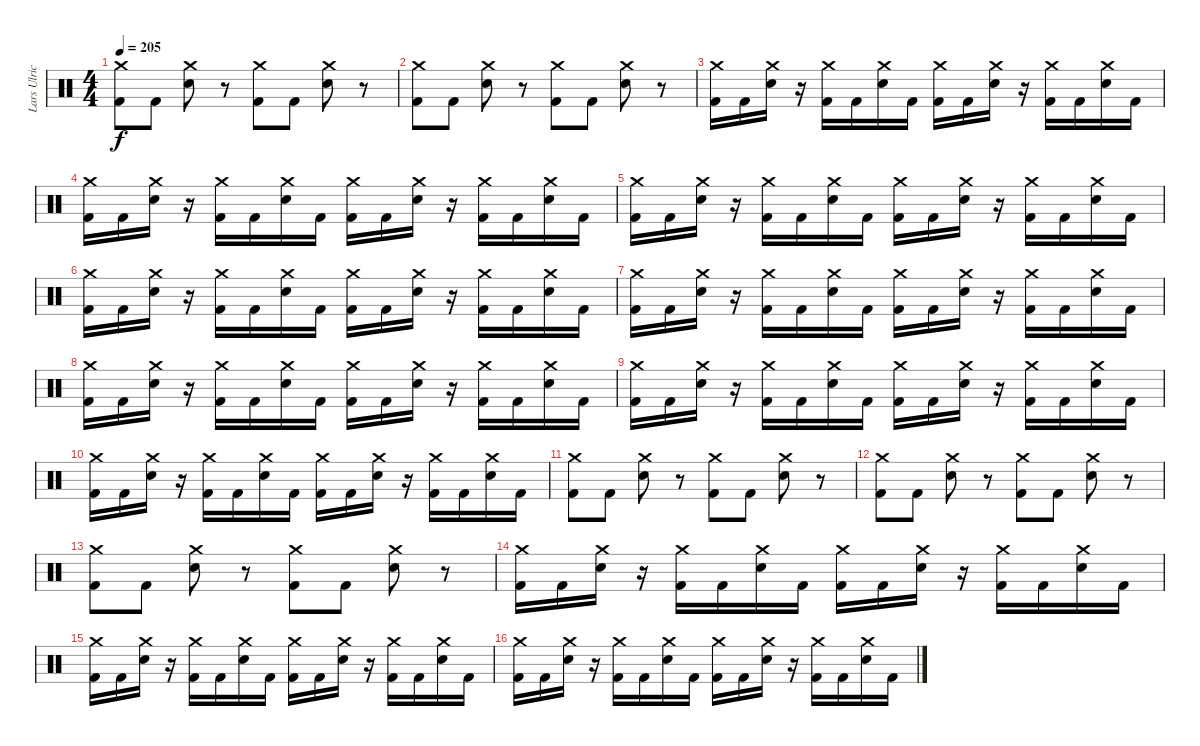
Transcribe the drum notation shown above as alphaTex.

\track ("Lars Ulrich" "Lars Ulric") {instrument percussion}
\staff {score}
\articulation defaults
\ts (4 4)
\tempo 205
\clef neutral
\ks c
("Crash medium (hit)" "Kick (hit) 2").8{dy f} "Kick (hit) 2".8 ("Crash medium (hit)" "Electric Snare (hit)").8 r.8 ("Crash medium (hit)" "Kick (hit) 2").8 "Kick (hit) 2".8 ("Crash medium (hit)" "Electric Snare (hit)").8 r.8 |
("Crash medium (hit)" "Kick (hit) 2").8 "Kick (hit) 2".8 ("Crash medium (hit)" "Electric Snare (hit)").8 r.8 ("Crash medium (hit)" "Kick (hit) 2").8 "Kick (hit) 2".8 ("Crash medium (hit)" "Electric Snare (hit)").8 r.8 |
("Crash medium (hit)" "Kick (hit) 2").16 "Kick (hit) 2".16 ("Crash medium (hit)" "Electric Snare (hit)").16 r.16 ("Crash medium (hit)" "Kick (hit) 2").16 "Kick (hit) 2".16 ("Crash medium (hit)" "Electric Snare (hit)").16 "Kick (hit) 2".16 ("Crash medium (hit)" "Kick (hit) 2").16 "Kick (hit) 2".16 ("Crash medium (hit)" "Electric Snare (hit)").16 r.16 ("Crash medium (hit)" "Kick (hit) 2").16 "Kick (hit) 2".16 ("Crash medium (hit)" "Electric Snare (hit)").16 "Kick (hit) 2".16 |
("Crash medium (hit)" "Kick (hit) 2").16 "Kick (hit) 2".16 ("Crash medium (hit)" "Electric Snare (hit)").16 r.16 ("Crash medium (hit)" "Kick (hit) 2").16 "Kick (hit) 2".16 ("Crash medium (hit)" "Electric Snare (hit)").16 "Kick (hit) 2".16 ("Crash medium (hit)" "Kick (hit) 2").16 "Kick (hit) 2".16 ("Crash medium (hit)" "Electric Snare (hit)").16 r.16 ("Crash medium (hit)" "Kick (hit) 2").16 "Kick (hit) 2".16 ("Crash medium (hit)" "Electric Snare (hit)").16 "Kick (hit) 2".16 |
("Crash medium (hit)" "Kick (hit) 2").16 "Kick (hit) 2".16 ("Crash medium (hit)" "Electric Snare (hit)").16 r.16 ("Crash medium (hit)" "Kick (hit) 2").16 "Kick (hit) 2".16 ("Crash medium (hit)" "Electric Snare (hit)").16 "Kick (hit) 2".16 ("Crash medium (hit)" "Kick (hit) 2").16 "Kick (hit) 2".16 ("Crash medium (hit)" "Electric Snare (hit)").16 r.16 ("Crash medium (hit)" "Kick (hit) 2").16 "Kick (hit) 2".16 ("Crash medium (hit)" "Electric Snare (hit)").16 "Kick (hit) 2".16 |
("Crash medium (hit)" "Kick (hit) 2").16 "Kick (hit) 2".16 ("Crash medium (hit)" "Electric Snare (hit)").16 r.16 ("Crash medium (hit)" "Kick (hit) 2").16 "Kick (hit) 2".16 ("Crash medium (hit)" "Electric Snare (hit)").16 "Kick (hit) 2".16 ("Crash medium (hit)" "Kick (hit) 2").16 "Kick (hit) 2".16 ("Crash medium (hit)" "Electric Snare (hit)").16 r.16 ("Crash medium (hit)" "Kick (hit) 2").16 "Kick (hit) 2".16 ("Crash medium (hit)" "Electric Snare (hit)").16 "Kick (hit) 2".16 |
("Crash medium (hit)" "Kick (hit) 2").16 "Kick (hit) 2".16 ("Crash medium (hit)" "Electric Snare (hit)").16 r.16 ("Crash medium (hit)" "Kick (hit) 2").16 "Kick (hit) 2".16 ("Crash medium (hit)" "Electric Snare (hit)").16 "Kick (hit) 2".16 ("Crash medium (hit)" "Kick (hit) 2").16 "Kick (hit) 2".16 ("Crash medium (hit)" "Electric Snare (hit)").16 r.16 ("Crash medium (hit)" "Kick (hit) 2").16 "Kick (hit) 2".16 ("Crash medium (hit)" "Electric Snare (hit)").16 "Kick (hit) 2".16 |
("Crash medium (hit)" "Kick (hit) 2").16 "Kick (hit) 2".16 ("Crash medium (hit)" "Electric Snare (hit)").16 r.16 ("Crash medium (hit)" "Kick (hit) 2").16 "Kick (hit) 2".16 ("Crash medium (hit)" "Electric Snare (hit)").16 "Kick (hit) 2".16 ("Crash medium (hit)" "Kick (hit) 2").16 "Kick (hit) 2".16 ("Crash medium (hit)" "Electric Snare (hit)").16 r.16 ("Crash medium (hit)" "Kick (hit) 2").16 "Kick (hit) 2".16 ("Crash medium (hit)" "Electric Snare (hit)").16 "Kick (hit) 2".16 |
("Crash medium (hit)" "Kick (hit) 2").16 "Kick (hit) 2".16 ("Crash medium (hit)" "Electric Snare (hit)").16 r.16 ("Crash medium (hit)" "Kick (hit) 2").16 "Kick (hit) 2".16 ("Crash medium (hit)" "Electric Snare (hit)").16 "Kick (hit) 2".16 ("Crash medium (hit)" "Kick (hit) 2").16 "Kick (hit) 2".16 ("Crash medium (hit)" "Electric Snare (hit)").16 r.16 ("Crash medium (hit)" "Kick (hit) 2").16 "Kick (hit) 2".16 ("Crash medium (hit)" "Electric Snare (hit)").16 "Kick (hit) 2".16 |
("Crash medium (hit)" "Kick (hit) 2").16 "Kick (hit) 2".16 ("Crash medium (hit)" "Electric Snare (hit)").16 r.16 ("Crash medium (hit)" "Kick (hit) 2").16 "Kick (hit) 2".16 ("Crash medium (hit)" "Electric Snare (hit)").16 "Kick (hit) 2".16 ("Crash medium (hit)" "Kick (hit) 2").16 "Kick (hit) 2".16 ("Crash medium (hit)" "Electric Snare (hit)").16 r.16 ("Crash medium (hit)" "Kick (hit) 2").16 "Kick (hit) 2".16 ("Crash medium (hit)" "Electric Snare (hit)").16 "Kick (hit) 2".16 |
("Crash medium (hit)" "Kick (hit) 2").8 "Kick (hit) 2".8 ("Crash medium (hit)" "Electric Snare (hit)").8 r.8 ("Crash medium (hit)" "Kick (hit) 2").8 "Kick (hit) 2".8 ("Crash medium (hit)" "Electric Snare (hit)").8 r.8 |
("Crash medium (hit)" "Kick (hit) 2").8 "Kick (hit) 2".8 ("Crash medium (hit)" "Electric Snare (hit)").8 r.8 ("Crash medium (hit)" "Kick (hit) 2").8 "Kick (hit) 2".8 ("Crash medium (hit)" "Electric Snare (hit)").8 r.8 |
("Crash medium (hit)" "Kick (hit) 2").8 "Kick (hit) 2".8 ("Crash medium (hit)" "Electric Snare (hit)").8 r.8 ("Crash medium (hit)" "Kick (hit) 2").8 "Kick (hit) 2".8 ("Crash medium (hit)" "Electric Snare (hit)").8 r.8 |
("Crash medium (hit)" "Kick (hit) 2").16 "Kick (hit) 2".16 ("Crash medium (hit)" "Electric Snare (hit)").16 r.16 ("Crash medium (hit)" "Kick (hit) 2").16 "Kick (hit) 2".16 ("Crash medium (hit)" "Electric Snare (hit)").16 "Kick (hit) 2".16 ("Crash medium (hit)" "Kick (hit) 2").16 "Kick (hit) 2".16 ("Crash medium (hit)" "Electric Snare (hit)").16 r.16 ("Crash medium (hit)" "Kick (hit) 2").16 "Kick (hit) 2".16 ("Crash medium (hit)" "Electric Snare (hit)").16 "Kick (hit) 2".16 |
("Crash medium (hit)" "Kick (hit) 2").16 "Kick (hit) 2".16 ("Crash medium (hit)" "Electric Snare (hit)").16 r.16 ("Crash medium (hit)" "Kick (hit) 2").16 "Kick (hit) 2".16 ("Crash medium (hit)" "Electric Snare (hit)").16 "Kick (hit) 2".16 ("Crash medium (hit)" "Kick (hit) 2").16 "Kick (hit) 2".16 ("Crash medium (hit)" "Electric Snare (hit)").16 r.16 ("Crash medium (hit)" "Kick (hit) 2").16 "Kick (hit) 2".16 ("Crash medium (hit)" "Electric Snare (hit)").16 "Kick (hit) 2".16 |
("Crash medium (hit)" "Kick (hit) 2").16 "Kick (hit) 2".16 ("Crash medium (hit)" "Electric Snare (hit)").16 r.16 ("Crash medium (hit)" "Kick (hit) 2").16 "Kick (hit) 2".16 ("Crash medium (hit)" "Electric Snare (hit)").16 "Kick (hit) 2".16 ("Crash medium (hit)" "Kick (hit) 2").16 "Kick (hit) 2".16 ("Crash medium (hit)" "Electric Snare (hit)").16 r.16 ("Crash medium (hit)" "Kick (hit) 2").16 "Kick (hit) 2".16 ("Crash medium (hit)" "Electric Snare (hit)").16 "Kick (hit) 2".16
